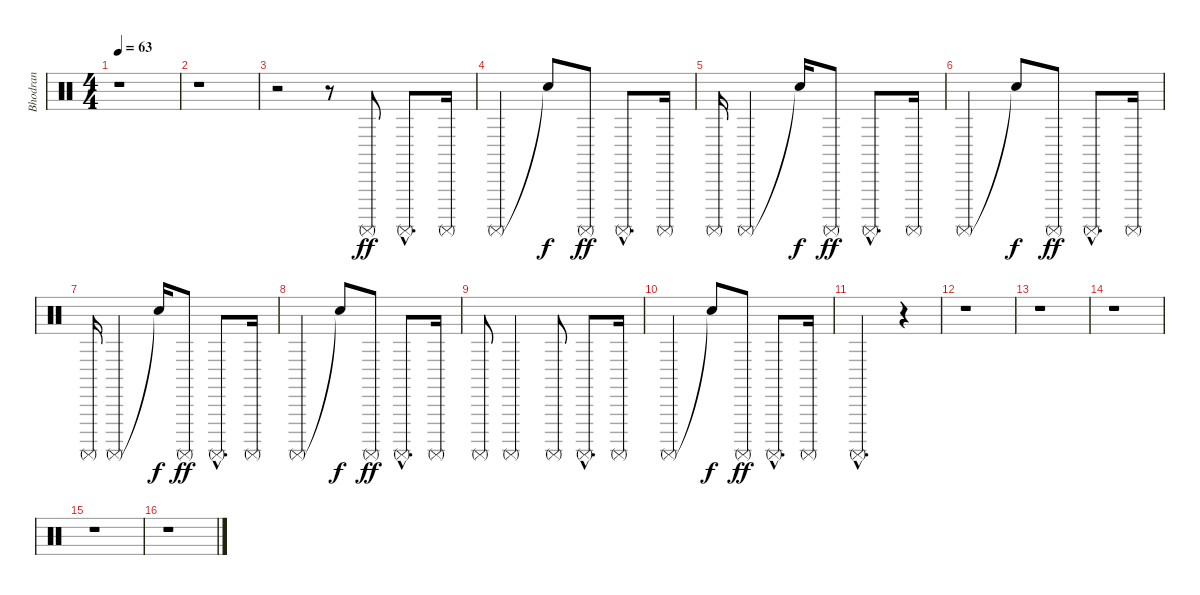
\track ("Bhodran" "Bhodran") {instrument percussion}
\staff {score}
\articulation defaults
\ts (4 4)
\tempo 63
\clef neutral
\ks c
r.1{dy ff} |
r.1 |
r.2 r.8 "Surdo (mute)".8 "Surdo (mute)"{hac}.8{d} "Surdo (mute)".16 |
"Surdo (mute)".2 "Snare (hit)"{t}.8{dy f} "Surdo (mute)".8{dy ff} "Surdo (mute)"{hac}.8{d} "Surdo (mute)".16 |
"Surdo (mute)".16 "Surdo (mute)".2 "Snare (hit)"{t}.16{dy f} "Surdo (mute)".8{dy ff} "Surdo (mute)"{hac}.8{d} "Surdo (mute)".16 |
"Surdo (mute)".2 "Snare (hit)"{t}.8{dy f} "Surdo (mute)".8{dy ff} "Surdo (mute)"{hac}.8{d} "Surdo (mute)".16 |
"Surdo (mute)".16 "Surdo (mute)".2 "Snare (hit)"{t}.16{dy f} "Surdo (mute)".8{dy ff} "Surdo (mute)"{hac}.8{d} "Surdo (mute)".16 |
"Surdo (mute)".2 "Snare (hit)"{t}.8{dy f} "Surdo (mute)".8{dy ff} "Surdo (mute)"{hac}.8{d} "Surdo (mute)".16 |
"Surdo (mute)".8 "Surdo (mute)".2 "Surdo (mute)".8 "Surdo (mute)"{hac}.8{d} "Surdo (mute)".16 |
"Surdo (mute)".2 "Snare (hit)"{t}.8{dy f} "Surdo (mute)".8{dy ff} "Surdo (mute)"{hac}.8{d} "Surdo (mute)".16 |
"Surdo (mute)"{hac}.2{d} r.4 |
r.1 |
r.1 |
r.1 |
r.1 |
r.1
